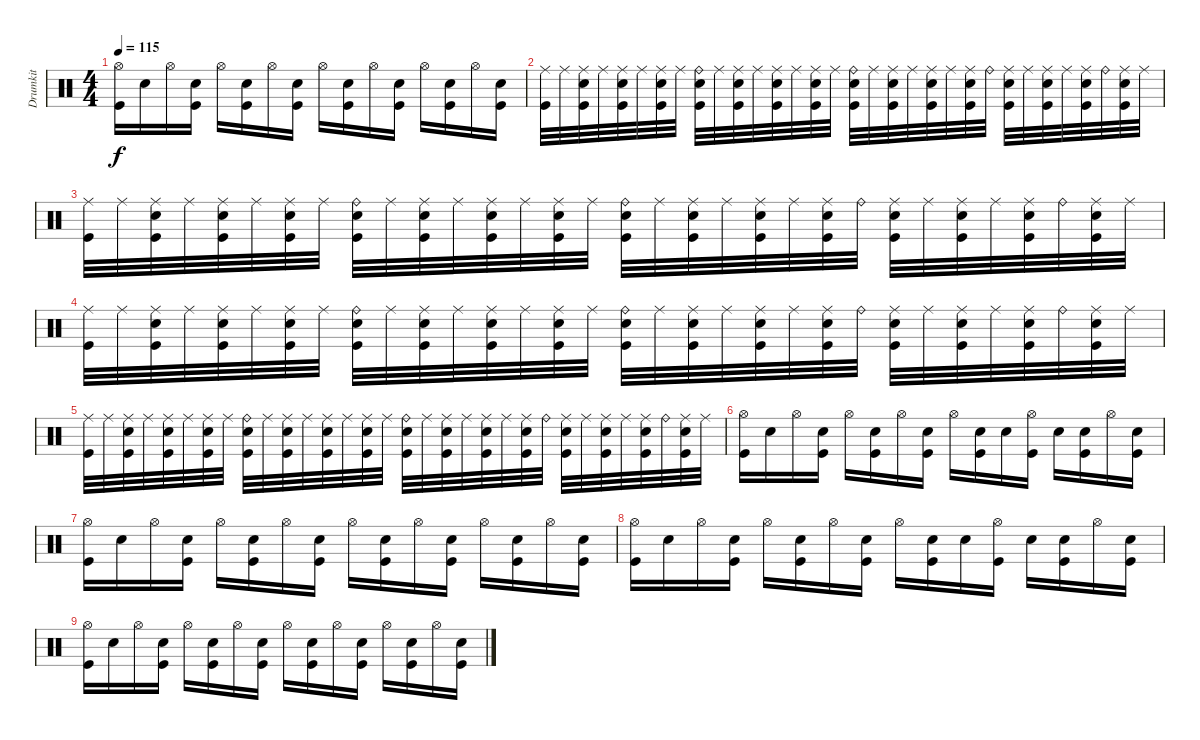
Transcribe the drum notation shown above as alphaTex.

\track ("Drumkit" "Drumkit") {instrument percussion}
\staff {score}
\articulation defaults
\ts (4 4)
\tempo 115
\clef neutral
\ks c
("Kick (hit)" "Hi-Hat (open)").16{dy f} "Snare (hit) 2".16 "Hi-Hat (open)".16 ("Kick (hit)" "Snare (hit) 2").16 "Hi-Hat (open)".16 ("Kick (hit)" "Snare (hit) 2").16 "Hi-Hat (open)".16 ("Kick (hit)" "Snare (hit) 2").16 "Hi-Hat (open)".16 ("Kick (hit)" "Snare (hit) 2").16 "Hi-Hat (open)".16 ("Kick (hit)" "Snare (hit) 2").16 "Hi-Hat (open)".16 ("Kick (hit)" "Snare (hit) 2").16 "Hi-Hat (open)".16 ("Kick (hit)" "Snare (hit) 2").16 |
("Kick (hit)" "Ride (middle)").32 "Ride (middle)".32 ("Kick (hit)" "Snare (hit) 2" "Ride (middle)").32 "Ride (middle)".32 ("Kick (hit)" "Snare (hit) 2" "Ride (middle)").32 "Ride (middle)".32 ("Kick (hit)" "Snare (hit) 2" "Ride (middle)").32 "Ride (middle)".32 ("Kick (hit)" "Snare (hit) 2" "Ride (bell)").32 "Ride (middle)".32 ("Kick (hit)" "Snare (hit) 2" "Ride (middle)").32 "Ride (middle)".32 ("Kick (hit)" "Snare (hit) 2" "Ride (middle)").32 "Ride (middle)".32 ("Kick (hit)" "Snare (hit) 2" "Ride (middle)").32 "Ride (middle)".32 ("Kick (hit)" "Snare (hit) 2" "Ride (bell)").32 "Ride (middle)".32 ("Kick (hit)" "Snare (hit) 2" "Ride (middle)").32 "Ride (middle)".32 ("Kick (hit)" "Snare (hit) 2" "Ride (middle)").32 "Ride (middle)".32 ("Kick (hit)" "Snare (hit) 2" "Ride (middle)").32 "Ride (bell)".32 ("Kick (hit)" "Snare (hit) 2" "Ride (middle)").32 "Ride (middle)".32 ("Kick (hit)" "Snare (hit) 2" "Ride (middle)").32 "Ride (middle)".32 ("Kick (hit)" "Snare (hit) 2" "Ride (middle)").32 "Ride (bell)".32 ("Kick (hit)" "Snare (hit) 2" "Ride (middle)").32 "Ride (middle)".32 |
("Kick (hit)" "Ride (middle)").32 "Ride (middle)".32 ("Kick (hit)" "Snare (hit) 2" "Ride (middle)").32 "Ride (middle)".32 ("Kick (hit)" "Snare (hit) 2" "Ride (middle)").32 "Ride (middle)".32 ("Kick (hit)" "Snare (hit) 2" "Ride (middle)").32 "Ride (middle)".32 ("Kick (hit)" "Snare (hit) 2" "Ride (bell)").32 "Ride (middle)".32 ("Kick (hit)" "Snare (hit) 2" "Ride (middle)").32 "Ride (middle)".32 ("Kick (hit)" "Snare (hit) 2" "Ride (middle)").32 "Ride (middle)".32 ("Kick (hit)" "Snare (hit) 2" "Ride (middle)").32 "Ride (middle)".32 ("Kick (hit)" "Snare (hit) 2" "Ride (bell)").32 "Ride (middle)".32 ("Kick (hit)" "Snare (hit) 2" "Ride (middle)").32 "Ride (middle)".32 ("Kick (hit)" "Snare (hit) 2" "Ride (middle)").32 "Ride (middle)".32 ("Kick (hit)" "Snare (hit) 2" "Ride (middle)").32 "Ride (bell)".32 ("Kick (hit)" "Snare (hit) 2" "Ride (middle)").32 "Ride (middle)".32 ("Kick (hit)" "Snare (hit) 2" "Ride (middle)").32 "Ride (middle)".32 ("Kick (hit)" "Snare (hit) 2" "Ride (middle)").32 "Ride (bell)".32 ("Kick (hit)" "Snare (hit) 2" "Ride (middle)").32 "Ride (middle)".32 |
("Kick (hit)" "Ride (middle)").32 "Ride (middle)".32 ("Kick (hit)" "Snare (hit) 2" "Ride (middle)").32 "Ride (middle)".32 ("Kick (hit)" "Snare (hit) 2" "Ride (middle)").32 "Ride (middle)".32 ("Kick (hit)" "Snare (hit) 2" "Ride (middle)").32 "Ride (middle)".32 ("Kick (hit)" "Snare (hit) 2" "Ride (bell)").32 "Ride (middle)".32 ("Kick (hit)" "Snare (hit) 2" "Ride (middle)").32 "Ride (middle)".32 ("Kick (hit)" "Snare (hit) 2" "Ride (middle)").32 "Ride (middle)".32 ("Kick (hit)" "Snare (hit) 2" "Ride (middle)").32 "Ride (middle)".32 ("Kick (hit)" "Snare (hit) 2" "Ride (bell)").32 "Ride (middle)".32 ("Kick (hit)" "Snare (hit) 2" "Ride (middle)").32 "Ride (middle)".32 ("Kick (hit)" "Snare (hit) 2" "Ride (middle)").32 "Ride (middle)".32 ("Kick (hit)" "Snare (hit) 2" "Ride (middle)").32 "Ride (bell)".32 ("Kick (hit)" "Snare (hit) 2" "Ride (middle)").32 "Ride (middle)".32 ("Kick (hit)" "Snare (hit) 2" "Ride (middle)").32 "Ride (middle)".32 ("Kick (hit)" "Snare (hit) 2" "Ride (middle)").32 "Ride (bell)".32 ("Kick (hit)" "Snare (hit) 2" "Ride (middle)").32 "Ride (middle)".32 |
("Kick (hit)" "Ride (middle)").32 "Ride (middle)".32 ("Kick (hit)" "Snare (hit) 2" "Ride (middle)").32 "Ride (middle)".32 ("Kick (hit)" "Snare (hit) 2" "Ride (middle)").32 "Ride (middle)".32 ("Kick (hit)" "Snare (hit) 2" "Ride (middle)").32 "Ride (middle)".32 ("Kick (hit)" "Snare (hit) 2" "Ride (bell)").32 "Ride (middle)".32 ("Kick (hit)" "Snare (hit) 2" "Ride (middle)").32 "Ride (middle)".32 ("Kick (hit)" "Snare (hit) 2" "Ride (middle)").32 "Ride (middle)".32 ("Kick (hit)" "Snare (hit) 2" "Ride (middle)").32 "Ride (middle)".32 ("Kick (hit)" "Snare (hit) 2" "Ride (bell)").32 "Ride (middle)".32 ("Kick (hit)" "Snare (hit) 2" "Ride (middle)").32 "Ride (middle)".32 ("Kick (hit)" "Snare (hit) 2" "Ride (middle)").32 "Ride (middle)".32 ("Kick (hit)" "Snare (hit) 2" "Ride (middle)").32 "Ride (bell)".32 ("Kick (hit)" "Snare (hit) 2" "Ride (middle)").32 "Ride (middle)".32 ("Kick (hit)" "Snare (hit) 2" "Ride (middle)").32 "Ride (middle)".32 ("Kick (hit)" "Snare (hit) 2" "Ride (middle)").32 "Ride (bell)".32 ("Kick (hit)" "Snare (hit) 2" "Ride (middle)").32 "Ride (middle)".32 |
("Kick (hit)" "Hi-Hat (open)").16 "Snare (hit) 2".16 "Hi-Hat (open)".16 ("Kick (hit)" "Snare (hit) 2").16 "Hi-Hat (open)".16 ("Kick (hit)" "Snare (hit) 2").16 "Hi-Hat (open)".16 ("Kick (hit)" "Snare (hit) 2").16 "Hi-Hat (open)".16 ("Kick (hit)" "Snare (hit) 2").16 "Snare (hit) 2".16 ("Kick (hit)" "Hi-Hat (open)").16 "Snare (hit) 2".16 ("Kick (hit)" "Snare (hit) 2").16 "Hi-Hat (open)".16 ("Kick (hit)" "Snare (hit) 2").16 |
("Kick (hit)" "Hi-Hat (open)").16 "Snare (hit) 2".16 "Hi-Hat (open)".16 ("Kick (hit)" "Snare (hit) 2").16 "Hi-Hat (open)".16 ("Kick (hit)" "Snare (hit) 2").16 "Hi-Hat (open)".16 ("Kick (hit)" "Snare (hit) 2").16 "Hi-Hat (open)".16 ("Kick (hit)" "Snare (hit) 2").16 "Hi-Hat (open)".16 ("Kick (hit)" "Snare (hit) 2").16 "Hi-Hat (open)".16 ("Kick (hit)" "Snare (hit) 2").16 "Hi-Hat (open)".16 ("Kick (hit)" "Snare (hit) 2").16 |
("Kick (hit)" "Hi-Hat (open)").16 "Snare (hit) 2".16 "Hi-Hat (open)".16 ("Kick (hit)" "Snare (hit) 2").16 "Hi-Hat (open)".16 ("Kick (hit)" "Snare (hit) 2").16 "Hi-Hat (open)".16 ("Kick (hit)" "Snare (hit) 2").16 "Hi-Hat (open)".16 ("Kick (hit)" "Snare (hit) 2").16 "Snare (hit) 2".16 ("Kick (hit)" "Hi-Hat (open)").16 "Snare (hit) 2".16 ("Kick (hit)" "Snare (hit) 2").16 "Hi-Hat (open)".16 ("Kick (hit)" "Snare (hit) 2").16 |
("Kick (hit)" "Hi-Hat (open)").16 "Snare (hit) 2".16 "Hi-Hat (open)".16 ("Kick (hit)" "Snare (hit) 2").16 "Hi-Hat (open)".16 ("Kick (hit)" "Snare (hit) 2").16 "Hi-Hat (open)".16 ("Kick (hit)" "Snare (hit) 2").16 "Hi-Hat (open)".16 ("Kick (hit)" "Snare (hit) 2").16 "Hi-Hat (open)".16 ("Kick (hit)" "Snare (hit) 2").16 "Hi-Hat (open)".16 ("Kick (hit)" "Snare (hit) 2").16 "Hi-Hat (open)".16 ("Kick (hit)" "Snare (hit) 2").16
